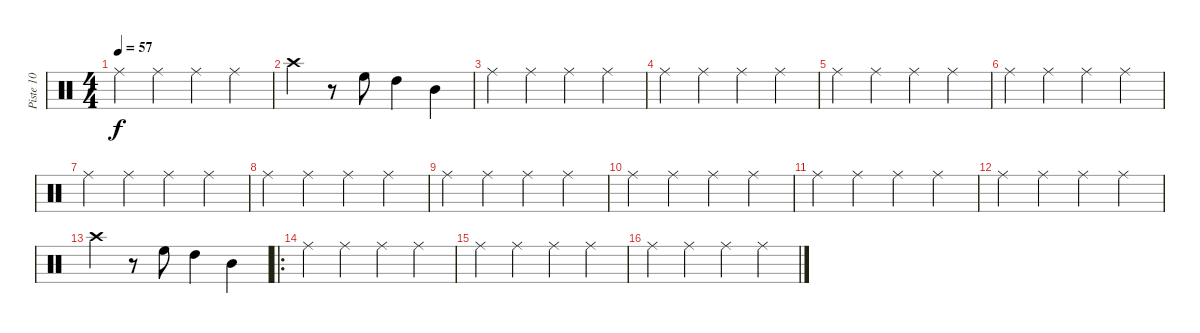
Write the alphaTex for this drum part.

\track ("Piste 10" "Piste 10") {instrument percussion}
\staff {score}
\articulation defaults
\ts (4 4)
\tempo 57
\clef neutral
\ks c "Ride (middle)".4{dy f} "Ride (middle)".4 "Ride (middle)".4 "Ride (middle)".4
|
"Crash high (hit)".4 r.8 "High Floor Tom (hit)".8 "High Tom (hit)".4 "Mid Tom (hit)".4 |
"Ride (middle)".4 "Ride (middle)".4 "Ride (middle)".4 "Ride (middle)".4 |
"Ride (middle)".4 "Ride (middle)".4 "Ride (middle)".4 "Ride (middle)".4 |
"Ride (middle)".4 "Ride (middle)".4 "Ride (middle)".4 "Ride (middle)".4 |
"Ride (middle)".4 "Ride (middle)".4 "Ride (middle)".4 "Ride (middle)".4 |
"Ride (middle)".4 "Ride (middle)".4 "Ride (middle)".4 "Ride (middle)".4 |
"Ride (middle)".4 "Ride (middle)".4 "Ride (middle)".4 "Ride (middle)".4 |
"Ride (middle)".4 "Ride (middle)".4 "Ride (middle)".4 "Ride (middle)".4 |
"Ride (middle)".4 "Ride (middle)".4 "Ride (middle)".4 "Ride (middle)".4 |
"Ride (middle)".4 "Ride (middle)".4 "Ride (middle)".4 "Ride (middle)".4 |
"Ride (middle)".4 "Ride (middle)".4 "Ride (middle)".4 "Ride (middle)".4 |
"Crash high (hit)".4 r.8 "High Floor Tom (hit)".8 "High Tom (hit)".4 "Mid Tom (hit)".4 |
\ro "Ride (middle)".4 "Ride (middle)".4 "Ride (middle)".4 "Ride (middle)".4
|
"Ride (middle)".4 "Ride (middle)".4 "Ride (middle)".4 "Ride (middle)".4 |
"Ride (middle)".4 "Ride (middle)".4 "Ride (middle)".4 "Ride (middle)".4
